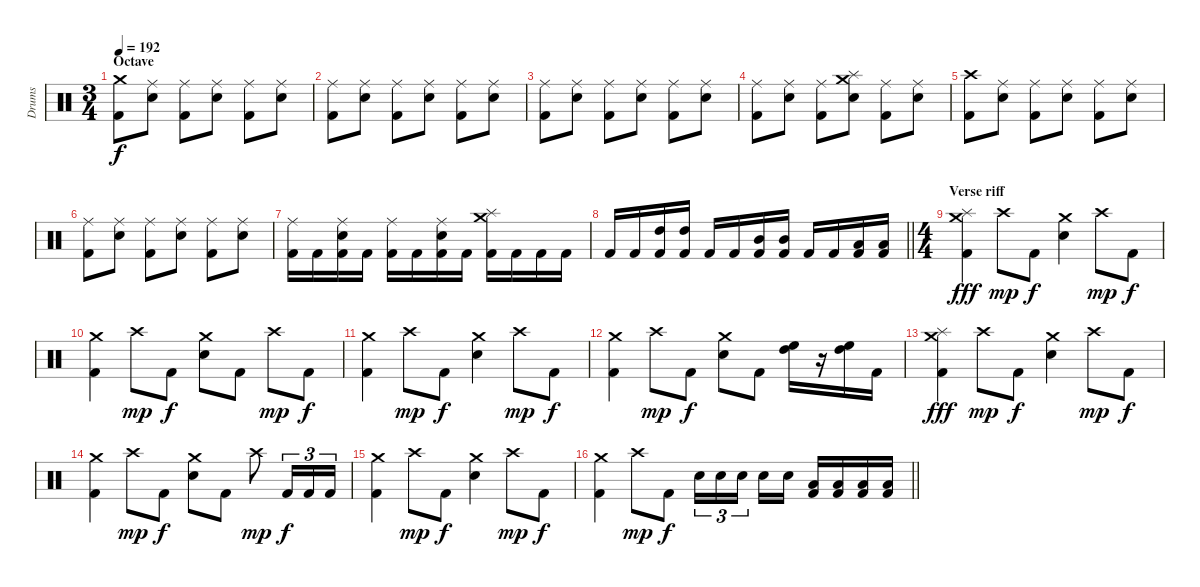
\track ("Drums" "Drums") {instrument percussion}
\staff {score}
\articulation defaults
\ts (3 4)
\section ("" "Octave")
\tempo 192
\clef neutral
\ks c
("Crash medium (hit)" "Kick (hit) 2").8{dy f} ("Ride (middle)" "Electric Snare (hit)").8 ("Ride (middle)" "Kick (hit) 2").8 ("Ride (middle)" "Electric Snare (hit)").8 ("Ride (middle)" "Kick (hit) 2").8 ("Ride (middle)" "Electric Snare (hit)").8 |
("Ride (middle)" "Kick (hit) 2").8 ("Ride (middle)" "Electric Snare (hit)").8 ("Ride (middle)" "Kick (hit) 2").8 ("Ride (middle)" "Electric Snare (hit)").8 ("Ride (middle)" "Kick (hit) 2").8 ("Ride (middle)" "Electric Snare (hit)").8 |
("Ride (middle)" "Kick (hit) 2").8 ("Ride (middle)" "Electric Snare (hit)").8 ("Ride (middle)" "Kick (hit) 2").8 ("Ride (middle)" "Electric Snare (hit)").8 ("Ride (middle)" "Kick (hit) 2").8 ("Ride (middle)" "Electric Snare (hit)").8 |
("Ride (middle)" "Kick (hit) 2").8 ("Ride (middle)" "Electric Snare (hit)").8 ("Ride (middle)" "Kick (hit) 2").8 ("Crash medium (hit)" "Splash (hit)" "Electric Snare (hit)").8 ("Ride (middle)" "Kick (hit) 2").8 ("Ride (middle)" "Electric Snare (hit)").8 |
("Crash high (hit)" "Kick (hit) 2").8 ("Ride (middle)" "Electric Snare (hit)").8 ("Ride (middle)" "Kick (hit) 2").8 ("Ride (middle)" "Electric Snare (hit)").8 ("Ride (middle)" "Kick (hit) 2").8 ("Ride (middle)" "Electric Snare (hit)").8 |
("Ride (middle)" "Kick (hit) 2").8 ("Ride (middle)" "Electric Snare (hit)").8 ("Ride (middle)" "Kick (hit) 2").8 ("Ride (middle)" "Electric Snare (hit)").8 ("Ride (middle)" "Kick (hit) 2").8 ("Ride (middle)" "Electric Snare (hit)").8 |
("Ride (middle)" "Kick (hit) 2").16 "Kick (hit) 2".16 ("Ride (middle)" "Electric Snare (hit)" "Kick (hit) 2").16 "Kick (hit) 2".16 ("Ride (middle)" "Kick (hit) 2").16 "Kick (hit) 2".16 ("Ride (middle)" "Electric Snare (hit)" "Kick (hit) 2").16 "Kick (hit) 2".16 ("Splash (hit)" "Crash medium (hit)" "Kick (hit) 2").16 "Kick (hit) 2".16 "Kick (hit) 2".16 "Kick (hit) 2".16 |
\barLineRight lightlight "Kick (hit) 2".16 "Kick (hit) 2".16
("High Tom (hit)" "Kick (hit) 2").16 ("High Tom (hit)" "Kick (hit) 2").16 "Kick (hit) 2".16 "Kick (hit) 2".16 ("Mid Tom (hit)" "Kick (hit) 2").16 ("Mid Tom (hit)" "Kick (hit) 2").16 "Kick (hit) 2".16 "Kick (hit) 2".16 ("Low Tom (hit)" "Kick (hit) 2").16 ("Low Tom (hit)" "Kick (hit) 2").16 |
\ts (4 4)
\section ("" "Verse riff")
("Crash medium (hit)" "Splash (hit)" "Kick (hit) 2").4{dy fff} "Crash high (hit)".8{dy mp} "Kick (hit) 2".8{dy f} ("Crash medium (hit)" "Electric Snare (hit)").4 "Crash high (hit)".8{dy mp} "Kick (hit) 2".8{dy f} |
("Crash medium (hit)" "Kick (hit) 2").4 "Crash high (hit)".8{dy mp} "Kick (hit) 2".8{dy f} ("Crash medium (hit)" "Electric Snare (hit)").8 "Kick (hit) 2".8 "Crash high (hit)".8{dy mp} "Kick (hit) 2".8{dy f} |
("Crash medium (hit)" "Kick (hit) 2").4 "Crash high (hit)".8{dy mp} "Kick (hit) 2".8{dy f} ("Crash medium (hit)" "Electric Snare (hit)").4 "Crash high (hit)".8{dy mp} "Kick (hit) 2".8{dy f} |
("Crash medium (hit)" "Kick (hit) 2").4 "Crash high (hit)".8{dy mp} "Kick (hit) 2".8{dy f} ("Crash medium (hit)" "Electric Snare (hit)").8 "Kick (hit) 2".8 ("High Floor Tom (hit)" "High Tom (hit)").16 r.16 ("High Floor Tom (hit)" "High Tom (hit)").16 "Kick (hit) 2".16 |
("Crash medium (hit)" "Splash (hit)" "Kick (hit) 2").4{dy fff} "Crash high (hit)".8{dy mp} "Kick (hit) 2".8{dy f} ("Crash medium (hit)" "Electric Snare (hit)").4 "Crash high (hit)".8{dy mp} "Kick (hit) 2".8{dy f} |
("Crash medium (hit)" "Kick (hit) 2").4 "Crash high (hit)".8{dy mp} "Kick (hit) 2".8{dy f} ("Crash medium (hit)" "Electric Snare (hit)").8 "Kick (hit) 2".8 "Crash high (hit)".8{dy mp} "Kick (hit) 2".16{tu (3 2) dy f} "Kick (hit) 2".16{tu (3 2)} "Kick (hit) 2".16{tu (3 2)} |
("Crash medium (hit)" "Kick (hit) 2").4 "Crash high (hit)".8{dy mp} "Kick (hit) 2".8{dy f} ("Crash medium (hit)" "Electric Snare (hit)").4 "Crash high (hit)".8{dy mp} "Kick (hit) 2".8{dy f} |
\barLineRight lightlight
("Crash medium (hit)" "Kick (hit) 2").4 "Crash high (hit)".8{dy mp} "Kick (hit) 2".8{dy f} "Electric Snare (hit)".16{tu (3 2)} "Electric Snare (hit)".16{tu (3 2)} "Electric Snare (hit)".16{tu (3 2) beam splitsecondary} "Electric Snare (hit)".16 "Electric Snare (hit)".16 ("Low Tom (hit)" "Kick (hit) 2").16 ("Low Tom (hit)" "Kick (hit) 2").16 ("Low Tom (hit)" "Kick (hit) 2").16 ("Low Tom (hit)" "Kick (hit) 2").16
